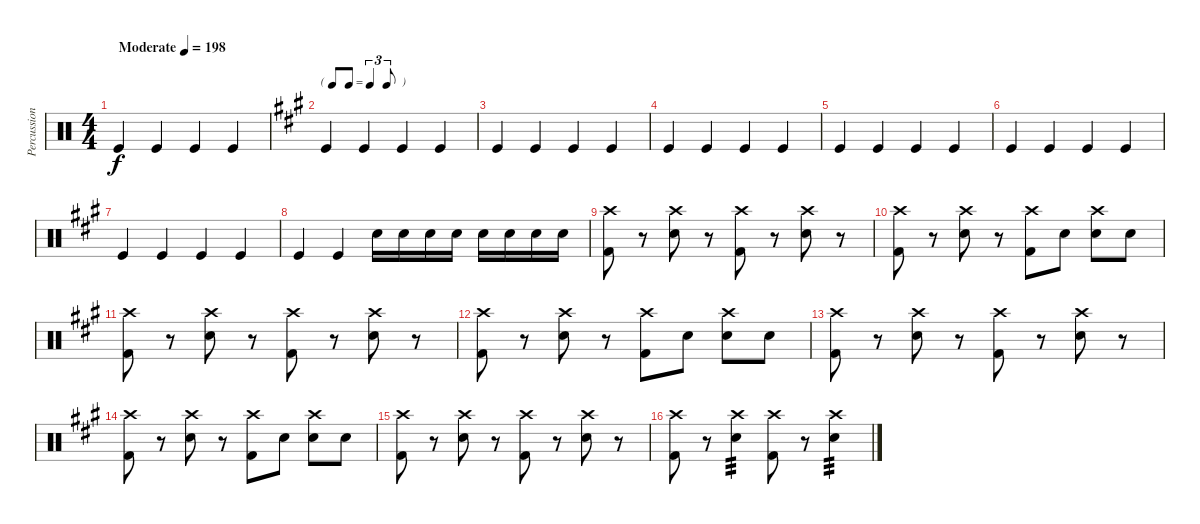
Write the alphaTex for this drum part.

\track ("Percussion" "Percussion") {instrument percussion}
\staff {score}
\articulation defaults
\ts (4 4)
\tempo (198 "Moderate")
\clef neutral
\ks c "Kick (hit)".4{dy f} "Kick (hit)".4 "Kick (hit)".4 "Kick (hit)".4
|
\tf triplet8th
\ks a "Kick (hit)".4 "Kick (hit)".4 "Kick (hit)".4 "Kick (hit)".4
|
"Kick (hit)".4 "Kick (hit)".4 "Kick (hit)".4 "Kick (hit)".4 |
"Kick (hit)".4 "Kick (hit)".4 "Kick (hit)".4 "Kick (hit)".4 |
"Kick (hit)".4 "Kick (hit)".4 "Kick (hit)".4 "Kick (hit)".4 |
"Kick (hit)".4 "Kick (hit)".4 "Kick (hit)".4 "Kick (hit)".4 |
"Kick (hit)".4 "Kick (hit)".4 "Kick (hit)".4 "Kick (hit)".4 |
"Kick (hit)".4 "Kick (hit)".4 "Snare (hit) 2".16 "Snare (hit) 2".16 "Snare (hit) 2".16 "Snare (hit) 2".16 "Snare (hit) 2".16 "Snare (hit) 2".16 "Snare (hit) 2".16 "Snare (hit) 2".16 |
("Crash high (hit)" "Kick (hit) 2").8 r.8 ("Crash high (hit)" "Snare (hit) 2").8 r.8 ("Crash high (hit)" "Kick (hit) 2").8 r.8 ("Crash high (hit)" "Snare (hit) 2").8 r.8 |
("Crash high (hit)" "Kick (hit) 2").8 r.8 ("Crash high (hit)" "Snare (hit) 2").8 r.8 ("Crash high (hit)" "Kick (hit) 2").8 "Snare (hit) 2".8 ("Crash high (hit)" "Snare (hit) 2").8 "Snare (hit) 2".8 |
("Crash high (hit)" "Kick (hit) 2").8 r.8 ("Crash high (hit)" "Snare (hit) 2").8 r.8 ("Crash high (hit)" "Kick (hit) 2").8 r.8 ("Crash high (hit)" "Snare (hit) 2").8 r.8 |
("Crash high (hit)" "Kick (hit) 2").8 r.8 ("Crash high (hit)" "Snare (hit) 2").8 r.8 ("Crash high (hit)" "Kick (hit) 2").8 "Snare (hit) 2".8 ("Crash high (hit)" "Snare (hit) 2").8 "Snare (hit) 2".8 |
("Crash high (hit)" "Kick (hit) 2").8 r.8 ("Crash high (hit)" "Snare (hit) 2").8 r.8 ("Crash high (hit)" "Kick (hit) 2").8 r.8 ("Crash high (hit)" "Snare (hit) 2").8 r.8 |
("Crash high (hit)" "Kick (hit) 2").8 r.8 ("Crash high (hit)" "Snare (hit) 2").8 r.8 ("Crash high (hit)" "Kick (hit) 2").8 "Snare (hit) 2".8 ("Crash high (hit)" "Snare (hit) 2").8 "Snare (hit) 2".8 |
("Crash high (hit)" "Kick (hit) 2").8 r.8 ("Crash high (hit)" "Snare (hit) 2").8 r.8 ("Crash high (hit)" "Kick (hit) 2").8 r.8 ("Crash high (hit)" "Snare (hit) 2").8 r.8 |
("Crash high (hit)" "Kick (hit) 2").8 r.8 ("Crash high (hit)" "Snare (hit) 2").4{tp 3} ("Crash high (hit)" "Kick (hit) 2").8 r.8 ("Crash high (hit)" "Snare (hit) 2").4{tp 3}
